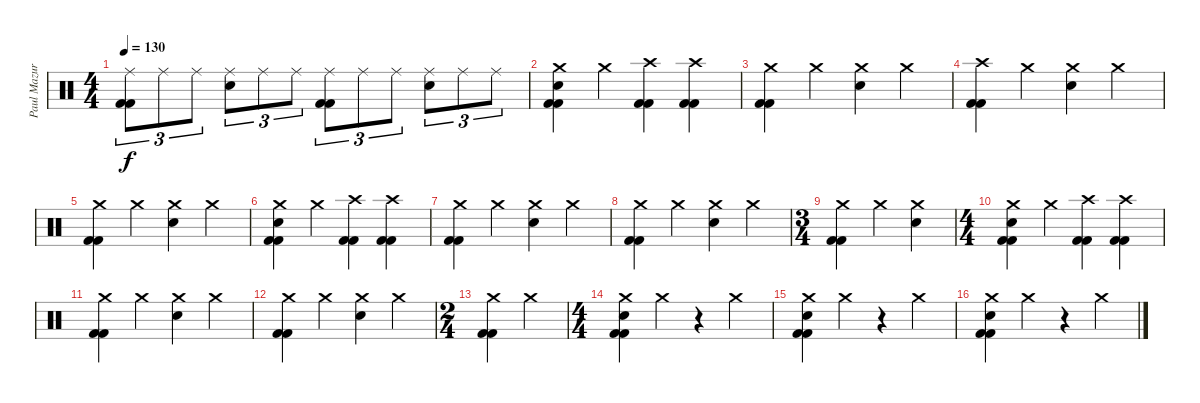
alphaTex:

\track ("Paul Mazurkiewicz" "Paul Mazur") {instrument percussion}
\staff {score}
\articulation defaults
\ts (4 4)
\tempo 130
\clef neutral
\ks c
("Ride (middle)" "Kick (hit) 2" "Kick (hit) 2").8{tu (3 2) dy f} "Ride (middle)".8{tu (3 2)} "Ride (middle)".8{tu (3 2)} ("Ride (middle)" "Snare (hit) 2").8{tu (3 2)} "Ride (middle)".8{tu (3 2)} "Ride (middle)".8{tu (3 2)} ("Ride (middle)" "Kick (hit) 2" "Kick (hit) 2").8{tu (3 2)} "Ride (middle)".8{tu (3 2)} "Ride (middle)".8{tu (3 2)} ("Ride (middle)" "Snare (hit) 2").8{tu (3 2)} "Ride (middle)".8{tu (3 2)} "Ride (middle)".8{tu (3 2)} |
("Crash medium (hit)" "Snare (hit) 2" "Kick (hit) 2" "Kick (hit) 2").4 "Crash medium (hit)".4 ("Crash high (hit)" "Kick (hit) 2" "Kick (hit) 2").4 ("Crash high (hit)" "Kick (hit) 2" "Kick (hit) 2").4 |
("Crash medium (hit)" "Kick (hit) 2" "Kick (hit) 2").4 "Crash medium (hit)".4 ("Crash medium (hit)" "Snare (hit) 2").4 "Crash medium (hit)".4 |
("Crash high (hit)" "Kick (hit) 2" "Kick (hit) 2").4 "Crash medium (hit)".4 ("Crash medium (hit)" "Snare (hit) 2").4 "Crash medium (hit)".4 |
("Crash medium (hit)" "Kick (hit) 2" "Kick (hit) 2").4 "Crash medium (hit)".4 ("Crash medium (hit)" "Snare (hit) 2").4 "Crash medium (hit)".4 |
("Crash medium (hit)" "Snare (hit) 2" "Kick (hit) 2" "Kick (hit) 2").4 "Crash medium (hit)".4 ("Crash high (hit)" "Kick (hit) 2" "Kick (hit) 2").4 ("Crash high (hit)" "Kick (hit) 2" "Kick (hit) 2").4 |
("Crash medium (hit)" "Kick (hit) 2" "Kick (hit) 2").4 "Crash medium (hit)".4 ("Crash medium (hit)" "Snare (hit) 2").4 "Crash medium (hit)".4 |
("Crash medium (hit)" "Kick (hit) 2" "Kick (hit) 2").4 "Crash medium (hit)".4 ("Crash medium (hit)" "Snare (hit) 2").4 "Crash medium (hit)".4 |
\ts (3 4)
("Crash medium (hit)" "Kick (hit) 2" "Kick (hit) 2").4 "Crash medium (hit)".4 ("Crash medium (hit)" "Snare (hit) 2").4 |
\ts (4 4)
("Crash medium (hit)" "Snare (hit) 2" "Kick (hit) 2" "Kick (hit) 2").4 "Crash medium (hit)".4 ("Crash high (hit)" "Kick (hit) 2" "Kick (hit) 2").4 ("Crash high (hit)" "Kick (hit) 2" "Kick (hit) 2").4 |
("Crash medium (hit)" "Kick (hit) 2" "Kick (hit) 2").4 "Crash medium (hit)".4 ("Crash medium (hit)" "Snare (hit) 2").4 "Crash medium (hit)".4 |
("Crash medium (hit)" "Kick (hit) 2" "Kick (hit) 2").4 "Crash medium (hit)".4 ("Crash medium (hit)" "Snare (hit) 2").4 "Crash medium (hit)".4 |
\ts (2 4)
("Crash medium (hit)" "Kick (hit) 2" "Kick (hit) 2").4 "Crash medium (hit)".4 |
\ts (4 4)
("Crash medium (hit)" "Snare (hit) 2" "Kick (hit) 2" "Kick (hit) 2").4 "Crash medium (hit)".4 r.4 "Crash medium (hit)".4 |
("Crash medium (hit)" "Snare (hit) 2" "Kick (hit) 2" "Kick (hit) 2").4 "Crash medium (hit)".4 r.4 "Crash medium (hit)".4 |
("Crash medium (hit)" "Snare (hit) 2" "Kick (hit) 2" "Kick (hit) 2").4 "Crash medium (hit)".4 r.4 "Crash medium (hit)".4
